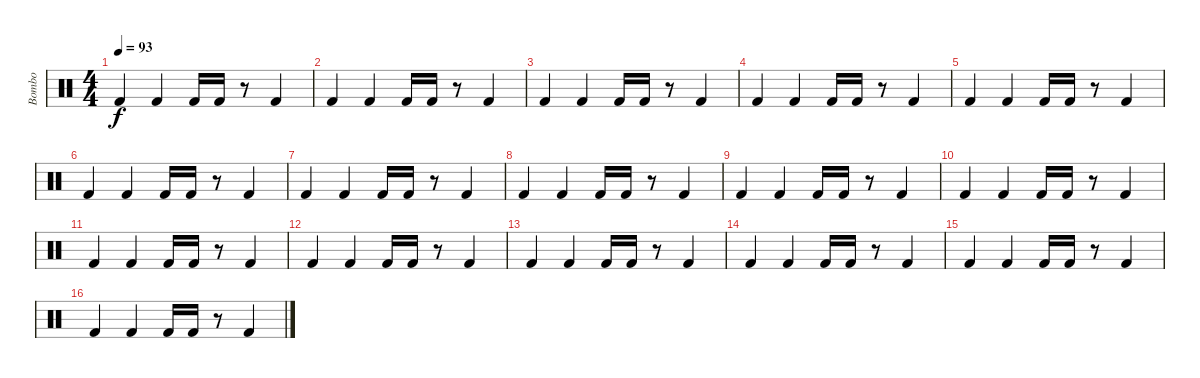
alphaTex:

\track ("Bombo" "Bombo") {instrument percussion bank 1}
\staff {score}
\articulation defaults
\ts (4 4)
\tempo 93
\clef neutral
\ks c "Kick (hit) 2".4{dy f} "Kick (hit) 2".4 "Kick (hit) 2".16 "Kick (hit) 2".16
r.8 "Kick (hit) 2".4 |
"Kick (hit) 2".4 "Kick (hit) 2".4 "Kick (hit) 2".16 "Kick (hit) 2".16 r.8 "Kick (hit) 2".4 |
"Kick (hit) 2".4 "Kick (hit) 2".4 "Kick (hit) 2".16 "Kick (hit) 2".16 r.8 "Kick (hit) 2".4 |
"Kick (hit) 2".4 "Kick (hit) 2".4 "Kick (hit) 2".16 "Kick (hit) 2".16 r.8 "Kick (hit) 2".4 |
"Kick (hit) 2".4 "Kick (hit) 2".4 "Kick (hit) 2".16 "Kick (hit) 2".16 r.8 "Kick (hit) 2".4 |
"Kick (hit) 2".4 "Kick (hit) 2".4 "Kick (hit) 2".16 "Kick (hit) 2".16 r.8 "Kick (hit) 2".4 |
"Kick (hit) 2".4 "Kick (hit) 2".4 "Kick (hit) 2".16 "Kick (hit) 2".16 r.8 "Kick (hit) 2".4 |
"Kick (hit) 2".4 "Kick (hit) 2".4 "Kick (hit) 2".16 "Kick (hit) 2".16 r.8 "Kick (hit) 2".4 |
"Kick (hit) 2".4 "Kick (hit) 2".4 "Kick (hit) 2".16 "Kick (hit) 2".16 r.8 "Kick (hit) 2".4 |
"Kick (hit) 2".4 "Kick (hit) 2".4 "Kick (hit) 2".16 "Kick (hit) 2".16 r.8 "Kick (hit) 2".4 |
"Kick (hit) 2".4 "Kick (hit) 2".4 "Kick (hit) 2".16 "Kick (hit) 2".16 r.8 "Kick (hit) 2".4 |
"Kick (hit) 2".4 "Kick (hit) 2".4 "Kick (hit) 2".16 "Kick (hit) 2".16 r.8 "Kick (hit) 2".4 |
"Kick (hit) 2".4 "Kick (hit) 2".4 "Kick (hit) 2".16 "Kick (hit) 2".16 r.8 "Kick (hit) 2".4 |
"Kick (hit) 2".4 "Kick (hit) 2".4 "Kick (hit) 2".16 "Kick (hit) 2".16 r.8 "Kick (hit) 2".4 |
"Kick (hit) 2".4 "Kick (hit) 2".4 "Kick (hit) 2".16 "Kick (hit) 2".16 r.8 "Kick (hit) 2".4 |
"Kick (hit) 2".4 "Kick (hit) 2".4 "Kick (hit) 2".16 "Kick (hit) 2".16 r.8 "Kick (hit) 2".4
